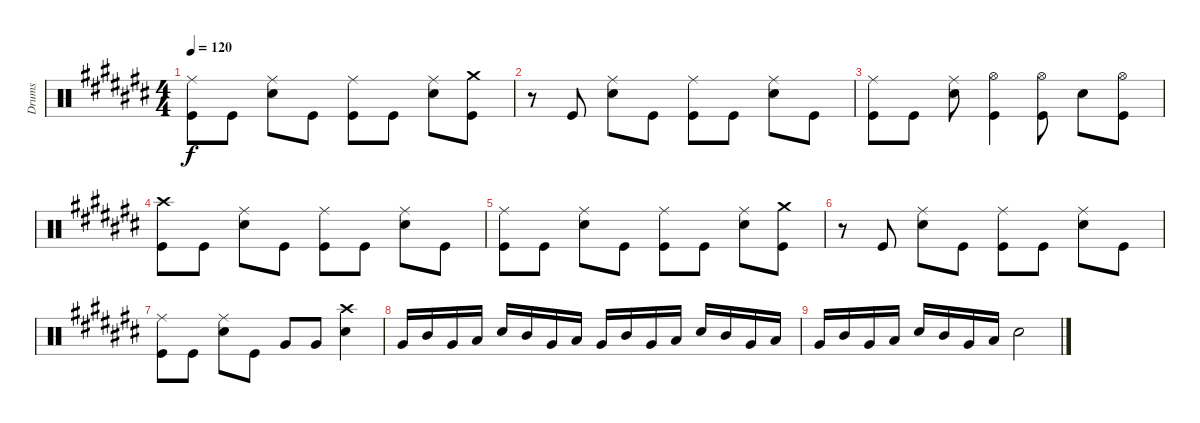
\track ("Drums" "Drums") {instrument percussion}
\staff {score}
\articulation defaults
\ts (4 4)
\tempo 120
\clef neutral
\ks c#
("Ride (middle)" "Kick (hit)").8{dy f} "Kick (hit)".8 ("Ride (middle)" "Snare (hit) 2").8 "Kick (hit)".8 ("Ride (middle)" "Kick (hit)").8 "Kick (hit)".8 ("Ride (middle)" "Snare (hit) 2").8 ("Crash medium (hit)" "Kick (hit)").8 |
r.8 "Kick (hit)".8 ("Ride (middle)" "Snare (hit) 2").8 "Kick (hit)".8 ("Ride (middle)" "Kick (hit)").8 "Kick (hit)".8 ("Ride (middle)" "Snare (hit) 2").8 "Kick (hit)".8 |
("Ride (middle)" "Kick (hit)").8 "Kick (hit)".8 ("Ride (middle)" "Snare (hit) 2").8 ("Hi-Hat (open)" "Kick (hit)").4 ("Hi-Hat (open)" "Kick (hit)").8 "Snare (hit) 2".8 ("Hi-Hat (open)" "Kick (hit)").8 |
("Crash high (hit)" "Kick (hit)").8 "Kick (hit)".8 ("Ride (middle)" "Snare (hit) 2").8 "Kick (hit)".8 ("Ride (middle)" "Kick (hit)").8 "Kick (hit)".8 ("Ride (middle)" "Snare (hit) 2").8 "Kick (hit)".8 |
("Ride (middle)" "Kick (hit)").8 "Kick (hit)".8 ("Ride (middle)" "Snare (hit) 2").8 "Kick (hit)".8 ("Ride (middle)" "Kick (hit)").8 "Kick (hit)".8 ("Ride (middle)" "Snare (hit) 2").8 ("Crash medium (hit)" "Kick (hit)").8 |
r.8 "Kick (hit)".8 ("Ride (middle)" "Snare (hit) 2").8 "Kick (hit)".8 ("Ride (middle)" "Kick (hit)").8 "Kick (hit)".8 ("Ride (middle)" "Snare (hit) 2").8 "Kick (hit)".8 |
("Ride (middle)" "Kick (hit)").8 "Kick (hit)".8 ("Ride (middle)" "Snare (hit) 2").8 "Kick (hit)".8 "Very Low Tom (hit)".8 "Very Low Tom (hit)".8 ("Crash high (hit)" "Snare (hit) 2").4 |
"Very Low Tom (hit)".16 "Mid Tom (hit)".16 "Very Low Tom (hit)".16 "Low Floor Tom (hit)".16 "Snare (hit) 2".16 "Mid Tom (hit)".16 "Very Low Tom (hit)".16 "Low Floor Tom (hit)".16 "Very Low Tom (hit)".16 "Mid Tom (hit)".16 "Very Low Tom (hit)".16 "Low Floor Tom (hit)".16 "Snare (hit) 2".16 "Mid Tom (hit)".16 "Very Low Tom (hit)".16 "Low Floor Tom (hit)".16 |
"Very Low Tom (hit)".16 "Mid Tom (hit)".16 "Very Low Tom (hit)".16 "Low Floor Tom (hit)".16 "Snare (hit) 2".16 "Mid Tom (hit)".16 "Very Low Tom (hit)".16 "Low Floor Tom (hit)".16 "Snare (hit) 2".2
